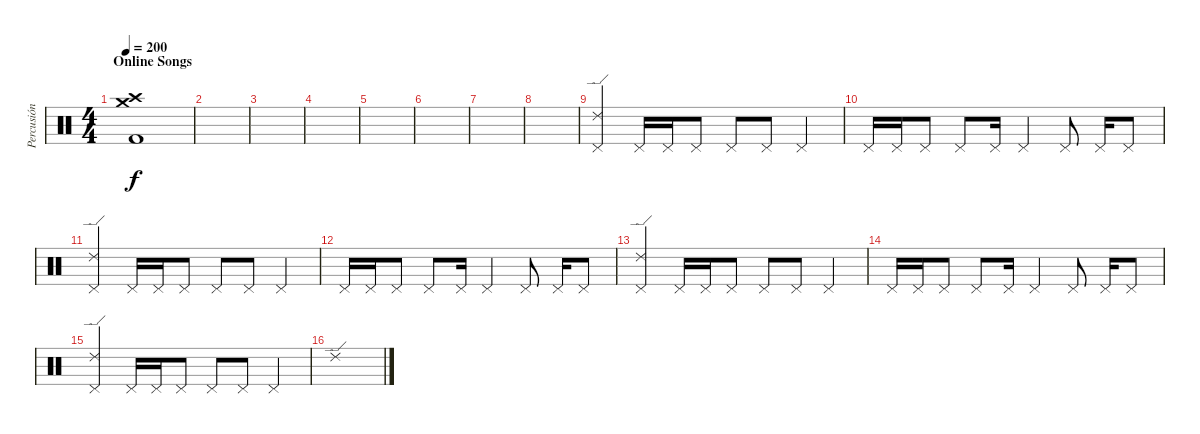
\track ("Percusión" "Percusión") {instrument percussion}
\staff {score}
\articulation defaults
\ts (4 4)
\section ("" "Online Songs")
\tempo 200
\clef neutral
\ks c
("Crash high (hit)" "Crash medium (hit)" "Kick (hit) 2").1{dy f} |
|
|
|
|
|
|
|
("Ride (edge) 2" "Pedal Hi-Hat (hit)").4 "Pedal Hi-Hat (hit)".16 "Pedal Hi-Hat (hit)".16 "Pedal Hi-Hat (hit)".8 "Pedal Hi-Hat (hit)".8 "Pedal Hi-Hat (hit)".8 "Pedal Hi-Hat (hit)".4 |
"Pedal Hi-Hat (hit)".16 "Pedal Hi-Hat (hit)".16 "Pedal Hi-Hat (hit)".8 "Pedal Hi-Hat (hit)".8 "Pedal Hi-Hat (hit)".16 "Pedal Hi-Hat (hit)".4 "Pedal Hi-Hat (hit)".8 "Pedal Hi-Hat (hit)".16 "Pedal Hi-Hat (hit)".8 |
("Ride (edge) 2" "Pedal Hi-Hat (hit)").4 "Pedal Hi-Hat (hit)".16 "Pedal Hi-Hat (hit)".16 "Pedal Hi-Hat (hit)".8 "Pedal Hi-Hat (hit)".8 "Pedal Hi-Hat (hit)".8 "Pedal Hi-Hat (hit)".4 |
"Pedal Hi-Hat (hit)".16 "Pedal Hi-Hat (hit)".16 "Pedal Hi-Hat (hit)".8 "Pedal Hi-Hat (hit)".8 "Pedal Hi-Hat (hit)".16 "Pedal Hi-Hat (hit)".4 "Pedal Hi-Hat (hit)".8 "Pedal Hi-Hat (hit)".16 "Pedal Hi-Hat (hit)".8 |
("Ride (edge) 2" "Pedal Hi-Hat (hit)").4 "Pedal Hi-Hat (hit)".16 "Pedal Hi-Hat (hit)".16 "Pedal Hi-Hat (hit)".8 "Pedal Hi-Hat (hit)".8 "Pedal Hi-Hat (hit)".8 "Pedal Hi-Hat (hit)".4 |
"Pedal Hi-Hat (hit)".16 "Pedal Hi-Hat (hit)".16 "Pedal Hi-Hat (hit)".8 "Pedal Hi-Hat (hit)".8 "Pedal Hi-Hat (hit)".16 "Pedal Hi-Hat (hit)".4 "Pedal Hi-Hat (hit)".8 "Pedal Hi-Hat (hit)".16 "Pedal Hi-Hat (hit)".8 |
("Ride (edge) 2" "Pedal Hi-Hat (hit)").4 "Pedal Hi-Hat (hit)".16 "Pedal Hi-Hat (hit)".16 "Pedal Hi-Hat (hit)".8 "Pedal Hi-Hat (hit)".8 "Pedal Hi-Hat (hit)".8 "Pedal Hi-Hat (hit)".4 |
"Ride (edge) 2".1
